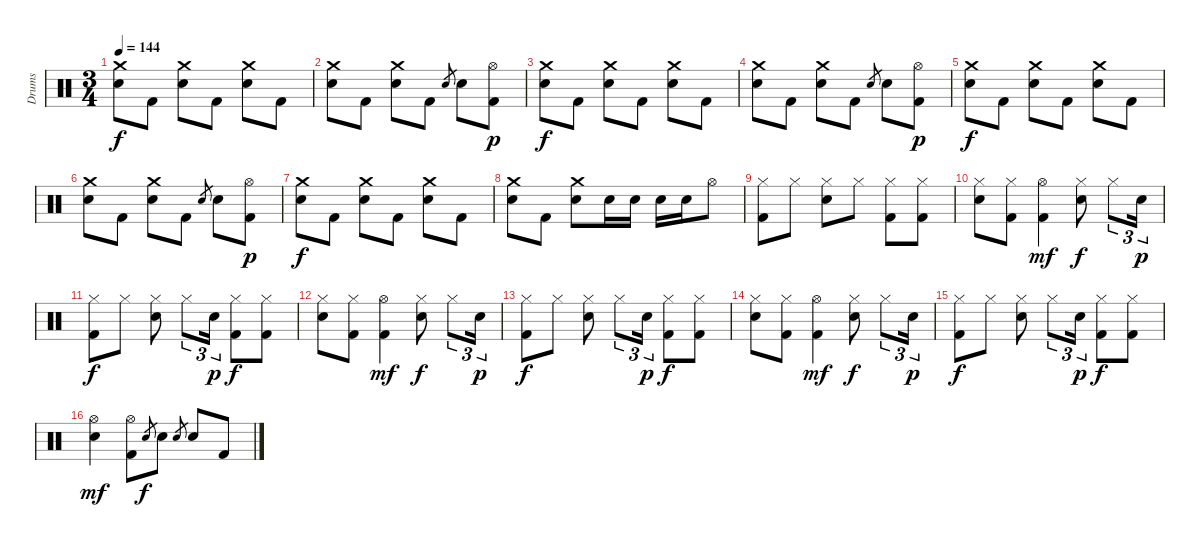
\track ("Drums" "Drums") {instrument percussion}
\staff {score}
\articulation defaults
\ts (3 4)
\tempo 144
\clef neutral
\ks c
("Crash medium (hit)" "Snare (hit) 2").8{dy f} "Kick (hit) 2".8 ("Crash medium (hit)" "Snare (hit) 2").8 "Kick (hit) 2".8 ("Crash medium (hit)" "Snare (hit) 2").8 "Kick (hit) 2".8 |
("Crash medium (hit)" "Snare (hit) 2").8 "Kick (hit) 2".8 ("Crash medium (hit)" "Snare (hit) 2").8 "Kick (hit) 2".8 "Snare (hit) 2".8{gr} "Snare (hit) 2".8 ("Hi-Hat (open)" "Kick (hit) 2").8{dy p} |
("Crash medium (hit)" "Snare (hit) 2").8{dy f} "Kick (hit) 2".8 ("Crash medium (hit)" "Snare (hit) 2").8 "Kick (hit) 2".8 ("Crash medium (hit)" "Snare (hit) 2").8 "Kick (hit) 2".8 |
("Crash medium (hit)" "Snare (hit) 2").8 "Kick (hit) 2".8 ("Crash medium (hit)" "Snare (hit) 2").8 "Kick (hit) 2".8 "Snare (hit) 2".8{gr} "Snare (hit) 2".8 ("Hi-Hat (open)" "Kick (hit) 2").8{dy p} |
("Crash medium (hit)" "Snare (hit) 2").8{dy f} "Kick (hit) 2".8 ("Crash medium (hit)" "Snare (hit) 2").8 "Kick (hit) 2".8 ("Crash medium (hit)" "Snare (hit) 2").8 "Kick (hit) 2".8 |
("Crash medium (hit)" "Snare (hit) 2").8 "Kick (hit) 2".8 ("Crash medium (hit)" "Snare (hit) 2").8 "Kick (hit) 2".8 "Snare (hit) 2".8{gr} "Snare (hit) 2".8 ("Hi-Hat (open)" "Kick (hit) 2").8{dy p} |
("Crash medium (hit)" "Snare (hit) 2").8{dy f} "Kick (hit) 2".8 ("Crash medium (hit)" "Snare (hit) 2").8 "Kick (hit) 2".8 ("Crash medium (hit)" "Snare (hit) 2").8 "Kick (hit) 2".8 |
("Crash medium (hit)" "Snare (hit) 2").8 "Kick (hit) 2".8 ("Crash medium (hit)" "Snare (hit) 2").8 "Snare (hit) 2".16 "Snare (hit) 2".16 "Snare (hit) 2".16 "Snare (hit) 2".16 "Hi-Hat (open)".8 |
("Hi-Hat (closed)" "Kick (hit) 2").8 "Hi-Hat (closed)".8 ("Hi-Hat (closed)" "Snare (hit) 2").8 "Hi-Hat (closed)".8 ("Hi-Hat (closed)" "Kick (hit) 2").8 ("Hi-Hat (closed)" "Kick (hit) 2").8 |
("Hi-Hat (closed)" "Snare (hit) 2").8 ("Hi-Hat (closed)" "Kick (hit) 2").8 ("Hi-Hat (open)" "Kick (hit) 2").4{dy mf} ("Hi-Hat (closed)" "Snare (hit) 2").8{dy f} "Hi-Hat (closed)".8{tu (3 2)} "Snare (hit) 2".16{tu (3 2) dy p} |
("Hi-Hat (closed)" "Kick (hit) 2").8{dy f} "Hi-Hat (closed)".8 ("Hi-Hat (closed)" "Snare (hit) 2").8 "Hi-Hat (closed)".8{tu (3 2)} "Snare (hit) 2".16{tu (3 2) dy p} ("Hi-Hat (closed)" "Kick (hit) 2").8{dy f} ("Hi-Hat (closed)" "Kick (hit) 2").8 |
("Hi-Hat (closed)" "Snare (hit) 2").8 ("Hi-Hat (closed)" "Kick (hit) 2").8 ("Hi-Hat (open)" "Kick (hit) 2").4{dy mf} ("Hi-Hat (closed)" "Snare (hit) 2").8{dy f} "Hi-Hat (closed)".8{tu (3 2)} "Snare (hit) 2".16{tu (3 2) dy p} |
("Hi-Hat (closed)" "Kick (hit) 2").8{dy f} "Hi-Hat (closed)".8 ("Hi-Hat (closed)" "Snare (hit) 2").8 "Hi-Hat (closed)".8{tu (3 2)} "Snare (hit) 2".16{tu (3 2) dy p} ("Hi-Hat (closed)" "Kick (hit) 2").8{dy f} ("Hi-Hat (closed)" "Kick (hit) 2").8 |
("Hi-Hat (closed)" "Snare (hit) 2").8 ("Hi-Hat (closed)" "Kick (hit) 2").8 ("Hi-Hat (open)" "Kick (hit) 2").4{dy mf} ("Hi-Hat (closed)" "Snare (hit) 2").8{dy f} "Hi-Hat (closed)".8{tu (3 2)} "Snare (hit) 2".16{tu (3 2) dy p} |
("Hi-Hat (closed)" "Kick (hit) 2").8{dy f} "Hi-Hat (closed)".8 ("Hi-Hat (closed)" "Snare (hit) 2").8 "Hi-Hat (closed)".8{tu (3 2)} "Snare (hit) 2".16{tu (3 2) dy p} ("Hi-Hat (closed)" "Kick (hit) 2").8{dy f} ("Hi-Hat (closed)" "Kick (hit) 2").8 |
("Hi-Hat (open)" "Snare (hit) 2").4{dy mf} ("Hi-Hat (open)" "Kick (hit) 2").8 "Snare (hit) 2".8{gr dy f} "Snare (hit) 2".8 "Snare (hit) 2".8{gr} "Snare (hit) 2".8 "Kick (hit) 2".8
